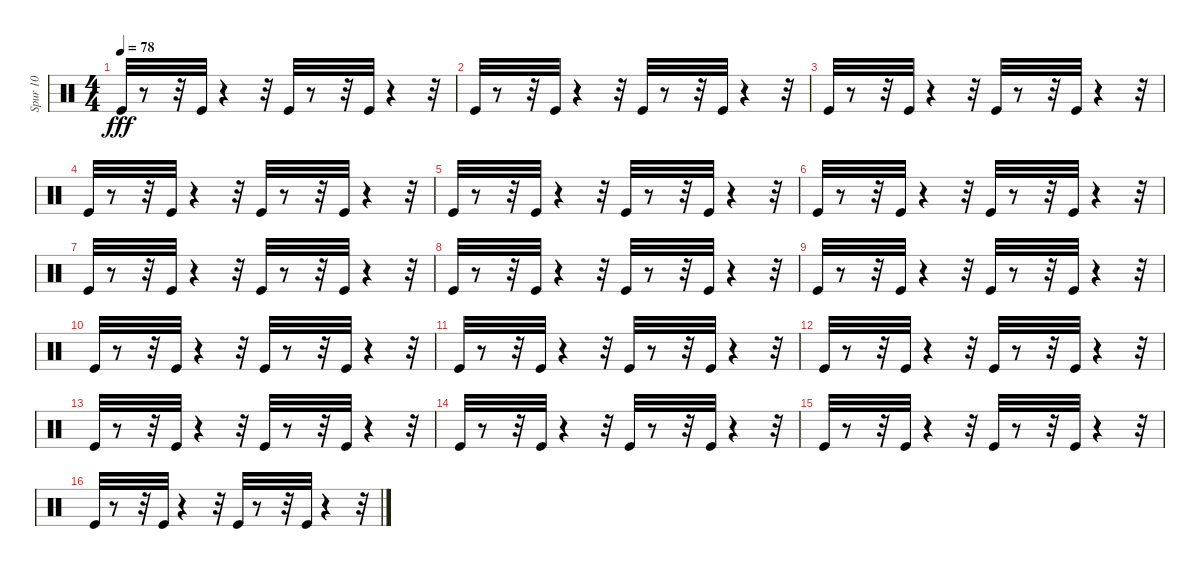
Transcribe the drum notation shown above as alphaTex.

\track ("Spur 10" "Spur 10") {instrument percussion}
\staff {score}
\articulation defaults
\ts (4 4)
\tempo 78
\clef neutral
\ks c "Kick (hit)".32{dy fff}
r.8 r.32 "Kick (hit)".32 r.4 r.32 "Kick (hit)".32 r.8 r.32 "Kick (hit)".32 r.4 r.32 |
"Kick (hit)".32 r.8 r.32 "Kick (hit)".32 r.4 r.32 "Kick (hit)".32 r.8 r.32 "Kick (hit)".32 r.4 r.32 |
"Kick (hit)".32 r.8 r.32 "Kick (hit)".32 r.4 r.32 "Kick (hit)".32 r.8 r.32 "Kick (hit)".32 r.4 r.32 |
"Kick (hit)".32 r.8 r.32 "Kick (hit)".32 r.4 r.32 "Kick (hit)".32 r.8 r.32 "Kick (hit)".32 r.4 r.32 |
"Kick (hit)".32 r.8 r.32 "Kick (hit)".32 r.4 r.32 "Kick (hit)".32 r.8 r.32 "Kick (hit)".32 r.4 r.32 |
"Kick (hit)".32 r.8 r.32 "Kick (hit)".32 r.4 r.32 "Kick (hit)".32 r.8 r.32 "Kick (hit)".32 r.4 r.32 |
"Kick (hit)".32 r.8 r.32 "Kick (hit)".32 r.4 r.32 "Kick (hit)".32 r.8 r.32 "Kick (hit)".32 r.4 r.32 |
"Kick (hit)".32 r.8 r.32 "Kick (hit)".32 r.4 r.32 "Kick (hit)".32 r.8 r.32 "Kick (hit)".32 r.4 r.32 |
"Kick (hit)".32 r.8 r.32 "Kick (hit)".32 r.4 r.32 "Kick (hit)".32 r.8 r.32 "Kick (hit)".32 r.4 r.32 |
"Kick (hit)".32 r.8 r.32 "Kick (hit)".32 r.4 r.32 "Kick (hit)".32 r.8 r.32 "Kick (hit)".32 r.4 r.32 |
"Kick (hit)".32 r.8 r.32 "Kick (hit)".32 r.4 r.32 "Kick (hit)".32 r.8 r.32 "Kick (hit)".32 r.4 r.32 |
"Kick (hit)".32 r.8 r.32 "Kick (hit)".32 r.4 r.32 "Kick (hit)".32 r.8 r.32 "Kick (hit)".32 r.4 r.32 |
"Kick (hit)".32 r.8 r.32 "Kick (hit)".32 r.4 r.32 "Kick (hit)".32 r.8 r.32 "Kick (hit)".32 r.4 r.32 |
"Kick (hit)".32 r.8 r.32 "Kick (hit)".32 r.4 r.32 "Kick (hit)".32 r.8 r.32 "Kick (hit)".32 r.4 r.32 |
"Kick (hit)".32 r.8 r.32 "Kick (hit)".32 r.4 r.32 "Kick (hit)".32 r.8 r.32 "Kick (hit)".32 r.4 r.32 |
"Kick (hit)".32 r.8 r.32 "Kick (hit)".32 r.4 r.32 "Kick (hit)".32 r.8 r.32 "Kick (hit)".32 r.4 r.32
